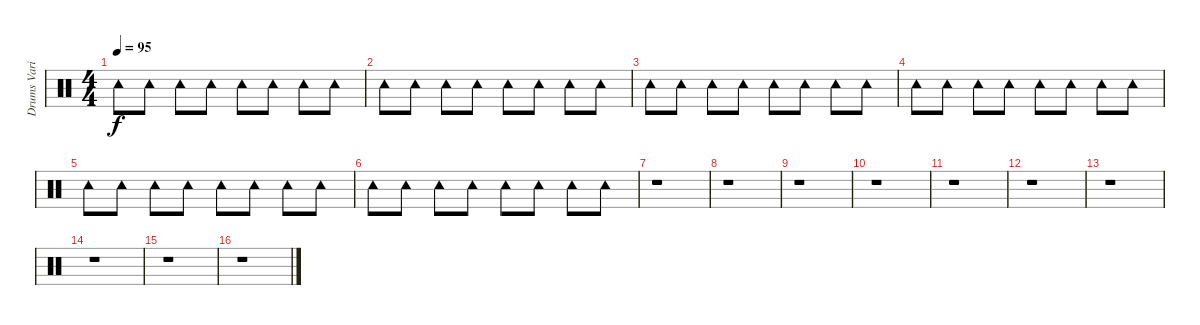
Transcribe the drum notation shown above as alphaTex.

\track ("Drums Variation" "Drums Vari") {instrument percussion}
\staff {score}
\articulation defaults
\ts (4 4)
\tempo 95
\clef neutral
\ks c "Tambourine (hit)".8{dy f} "Tambourine (hit)".8 "Tambourine (hit)".8 "Tambourine (hit)".8 "Tambourine (hit)".8 "Tambourine (hit)".8 "Tambourine (hit)".8 "Tambourine (hit)".8
|
"Tambourine (hit)".8 "Tambourine (hit)".8 "Tambourine (hit)".8 "Tambourine (hit)".8 "Tambourine (hit)".8 "Tambourine (hit)".8 "Tambourine (hit)".8 "Tambourine (hit)".8 |
"Tambourine (hit)".8 "Tambourine (hit)".8 "Tambourine (hit)".8 "Tambourine (hit)".8 "Tambourine (hit)".8 "Tambourine (hit)".8 "Tambourine (hit)".8 "Tambourine (hit)".8 |
"Tambourine (hit)".8 "Tambourine (hit)".8 "Tambourine (hit)".8 "Tambourine (hit)".8 "Tambourine (hit)".8 "Tambourine (hit)".8 "Tambourine (hit)".8 "Tambourine (hit)".8 |
"Tambourine (hit)".8 "Tambourine (hit)".8 "Tambourine (hit)".8 "Tambourine (hit)".8 "Tambourine (hit)".8 "Tambourine (hit)".8 "Tambourine (hit)".8 "Tambourine (hit)".8 |
"Tambourine (hit)".8 "Tambourine (hit)".8 "Tambourine (hit)".8 "Tambourine (hit)".8 "Tambourine (hit)".8 "Tambourine (hit)".8 "Tambourine (hit)".8 "Tambourine (hit)".8 |
r.1 |
r.1 |
r.1 |
r.1 |
r.1 |
r.1 |
r.1 |
r.1 |
r.1 |
r.1
